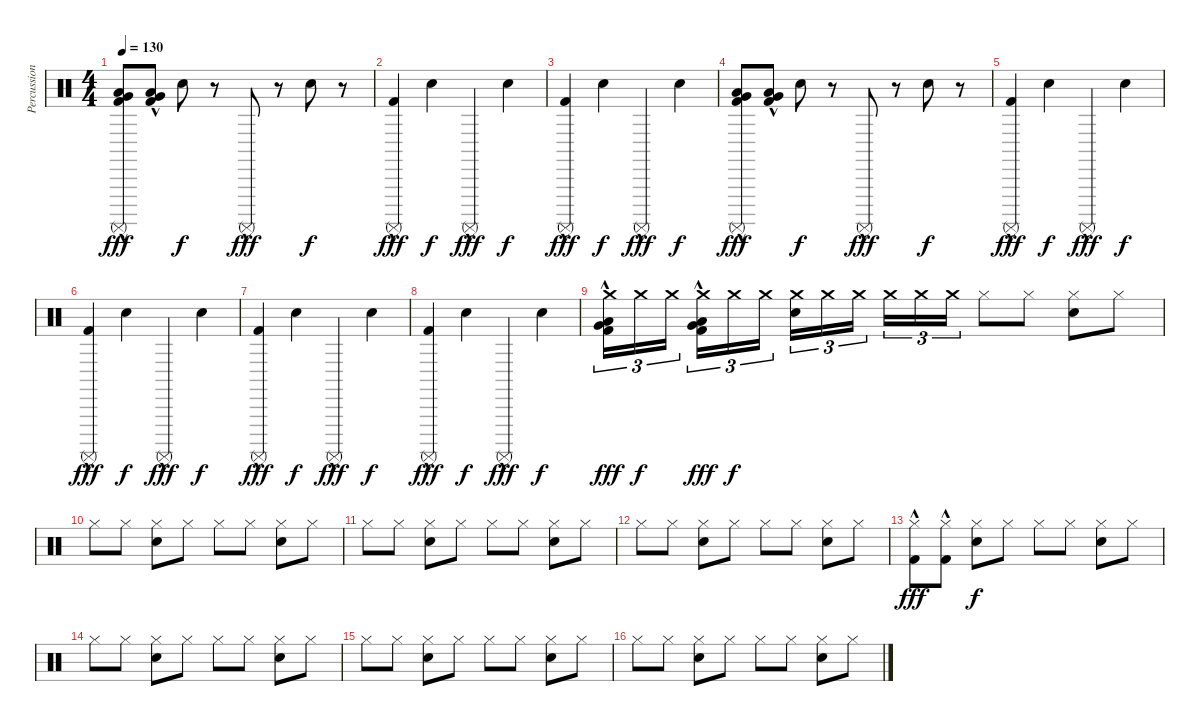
\track ("Percussion" "Percussion") {instrument percussion}
\staff {score}
\articulation defaults
\ts (4 4)
\tempo 130
\clef neutral
\ks c
("Surdo (mute)"{hac} "Low Floor Tom (hit)"{hac} "Very Low Tom (hit)"{hac} "Kick (hit) 2"{hac}).8{dy fff} ("Low Floor Tom (hit)"{hac} "Very Low Tom (hit)"{hac} "Kick (hit) 2"{hac}).8 "Snare (hit) 2".8{dy f} r.8 "Surdo (mute)"{hac}.8{dy fff} r.8 "Snare (hit) 2".8{dy f} r.8 |
("Surdo (mute)"{hac} "Kick (hit) 2"{hac}).4{dy fff} "Snare (hit) 2".4{dy f} "Surdo (mute)"{hac}.4{dy fff} "Snare (hit) 2".4{dy f} |
("Surdo (mute)"{hac} "Kick (hit) 2"{hac}).4{dy fff} "Snare (hit) 2".4{dy f} "Surdo (mute)"{hac}.4{dy fff} "Snare (hit) 2".4{dy f} |
("Surdo (mute)"{hac} "Low Floor Tom (hit)"{hac} "Very Low Tom (hit)"{hac} "Kick (hit) 2"{hac}).8{dy fff} ("Low Floor Tom (hit)"{hac} "Very Low Tom (hit)"{hac} "Kick (hit) 2"{hac}).8 "Snare (hit) 2".8{dy f} r.8 "Surdo (mute)"{hac}.8{dy fff} r.8 "Snare (hit) 2".8{dy f} r.8 |
("Surdo (mute)"{hac} "Kick (hit) 2"{hac}).4{dy fff} "Snare (hit) 2".4{dy f} "Surdo (mute)"{hac}.4{dy fff} "Snare (hit) 2".4{dy f} |
("Surdo (mute)"{hac} "Kick (hit) 2"{hac}).4{dy fff} "Snare (hit) 2".4{dy f} "Surdo (mute)"{hac}.4{dy fff} "Snare (hit) 2".4{dy f} |
("Surdo (mute)"{hac} "Kick (hit) 2"{hac}).4{dy fff} "Snare (hit) 2".4{dy f} "Surdo (mute)"{hac}.4{dy fff} "Snare (hit) 2".4{dy f} |
("Surdo (mute)"{hac} "Kick (hit) 2"{hac}).4{dy fff} "Snare (hit) 2".4{dy f} "Surdo (mute)"{hac}.4{dy fff} "Snare (hit) 2".4{dy f} |
("Crash medium (hit)" "Low Floor Tom (hit)"{hac} "Very Low Tom (hit)"{hac} "Kick (hit) 2"{hac}).16{tu (3 2) dy fff} "Crash medium (hit)".16{tu (3 2) dy f} "Crash medium (hit)".16{tu (3 2) beam splitsecondary} ("Crash medium (hit)" "Low Floor Tom (hit)"{hac} "Very Low Tom (hit)"{hac} "Kick (hit) 2"{hac}).16{tu (3 2) dy fff} "Crash medium (hit)".16{tu (3 2) dy f} "Crash medium (hit)".16{tu (3 2)} ("Crash medium (hit)" "Snare (hit) 2").16{tu (3 2)} "Crash medium (hit)".16{tu (3 2)} "Crash medium (hit)".16{tu (3 2) beam splitsecondary} "Crash medium (hit)".16{tu (3 2)} "Crash medium (hit)".16{tu (3 2)} "Crash medium (hit)".16{tu (3 2)} "Hi-Hat (closed)".8 "Hi-Hat (closed)".8 ("Hi-Hat (closed)" "Snare (hit) 2").8 "Hi-Hat (closed)".8 |
"Hi-Hat (closed)".8 "Hi-Hat (closed)".8 ("Hi-Hat (closed)" "Snare (hit) 2").8 "Hi-Hat (closed)".8 "Hi-Hat (closed)".8 "Hi-Hat (closed)".8 ("Hi-Hat (closed)" "Snare (hit) 2").8 "Hi-Hat (closed)".8 |
"Hi-Hat (closed)".8 "Hi-Hat (closed)".8 ("Hi-Hat (closed)" "Snare (hit) 2").8 "Hi-Hat (closed)".8 "Hi-Hat (closed)".8 "Hi-Hat (closed)".8 ("Hi-Hat (closed)" "Snare (hit) 2").8 "Hi-Hat (closed)".8 |
"Hi-Hat (closed)".8 "Hi-Hat (closed)".8 ("Hi-Hat (closed)" "Snare (hit) 2").8 "Hi-Hat (closed)".8 "Hi-Hat (closed)".8 "Hi-Hat (closed)".8 ("Hi-Hat (closed)" "Snare (hit) 2").8 "Hi-Hat (closed)".8 |
("Hi-Hat (closed)" "Kick (hit) 2"{hac}).8{dy fff} ("Hi-Hat (closed)" "Kick (hit) 2"{hac}).8 ("Hi-Hat (closed)" "Snare (hit) 2").8{dy f} "Hi-Hat (closed)".8 "Hi-Hat (closed)".8 "Hi-Hat (closed)".8 ("Hi-Hat (closed)" "Snare (hit) 2").8 "Hi-Hat (closed)".8 |
"Hi-Hat (closed)".8 "Hi-Hat (closed)".8 ("Hi-Hat (closed)" "Snare (hit) 2").8 "Hi-Hat (closed)".8 "Hi-Hat (closed)".8 "Hi-Hat (closed)".8 ("Hi-Hat (closed)" "Snare (hit) 2").8 "Hi-Hat (closed)".8 |
"Hi-Hat (closed)".8 "Hi-Hat (closed)".8 ("Hi-Hat (closed)" "Snare (hit) 2").8 "Hi-Hat (closed)".8 "Hi-Hat (closed)".8 "Hi-Hat (closed)".8 ("Hi-Hat (closed)" "Snare (hit) 2").8 "Hi-Hat (closed)".8 |
"Hi-Hat (closed)".8 "Hi-Hat (closed)".8 ("Hi-Hat (closed)" "Snare (hit) 2").8 "Hi-Hat (closed)".8 "Hi-Hat (closed)".8 "Hi-Hat (closed)".8 ("Hi-Hat (closed)" "Snare (hit) 2").8 "Hi-Hat (closed)".8
